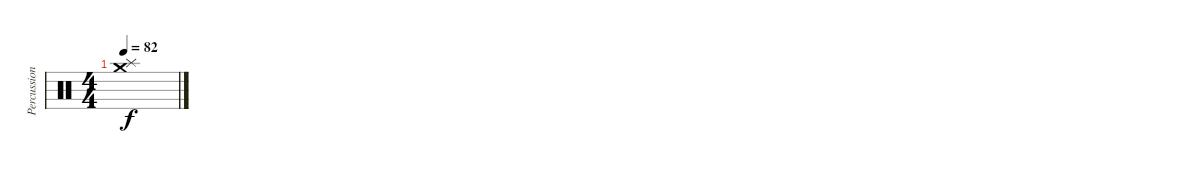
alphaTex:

\track ("Percussion" "Percussion") {instrument percussion}
\staff {score}
\articulation defaults
\ts (4 4)
\tempo 82
\clef neutral
\ks c
("Crash medium (hit)" "Splash (hit)").1{dy f}
